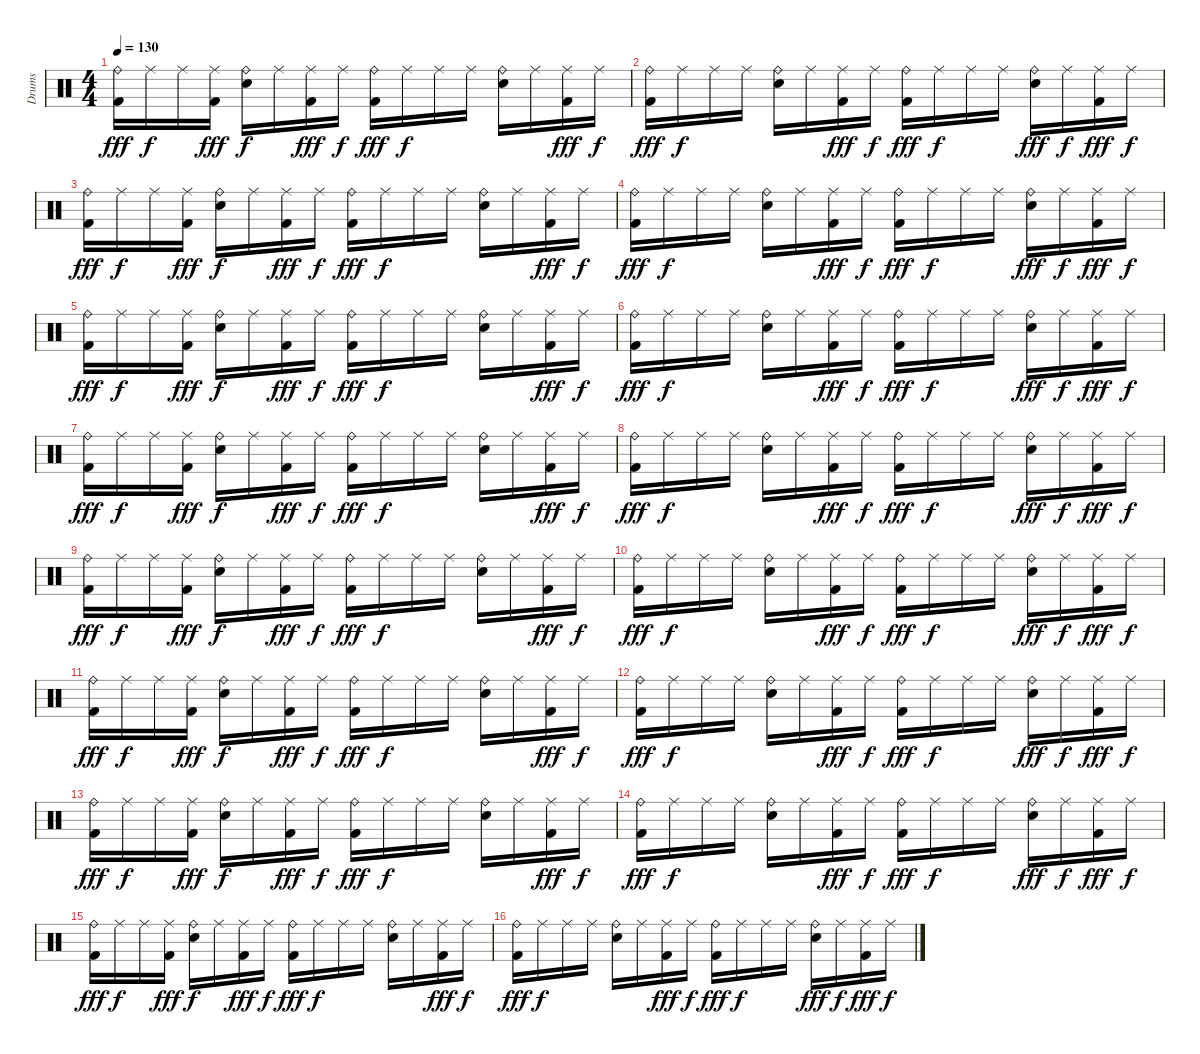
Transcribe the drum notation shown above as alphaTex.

\track ("Drums" "Drums") {instrument percussion}
\staff {score}
\articulation defaults
\ts (4 4)
\tempo 130
\clef neutral
\ks c
("Ride (bell)" "Kick (hit) 2").16{dy fff} "Ride (middle)".16{dy f} "Ride (middle)".16 ("Ride (middle)" "Kick (hit) 2").16{dy fff} ("Ride (bell)" "Electric Snare (hit)").16{dy f} "Ride (middle)".16 ("Ride (middle)" "Kick (hit) 2").16{dy fff} "Ride (middle)".16{dy f} ("Ride (bell)" "Kick (hit) 2").16{dy fff} "Ride (middle)".16{dy f} "Ride (middle)".16 "Ride (middle)".16 ("Ride (bell)" "Electric Snare (hit)").16 "Ride (middle)".16 ("Ride (middle)" "Kick (hit) 2").16{dy fff} "Ride (middle)".16{dy f} |
("Ride (bell)" "Kick (hit) 2").16{dy fff} "Ride (middle)".16{dy f} "Ride (middle)".16 "Ride (middle)".16 ("Ride (bell)" "Electric Snare (hit)").16 "Ride (middle)".16 ("Ride (middle)" "Kick (hit) 2").16{dy fff} "Ride (middle)".16{dy f} ("Ride (bell)" "Kick (hit) 2").16{dy fff} "Ride (middle)".16{dy f} "Ride (middle)".16 "Ride (middle)".16 ("Ride (bell)" "Hand Clap (hit)").16{dy fff} "Ride (middle)".16{dy f} ("Ride (middle)" "Kick (hit) 2").16{dy fff} "Ride (middle)".16{dy f} |
("Ride (bell)" "Kick (hit) 2").16{dy fff} "Ride (middle)".16{dy f} "Ride (middle)".16 ("Ride (middle)" "Kick (hit) 2").16{dy fff} ("Ride (bell)" "Electric Snare (hit)").16{dy f} "Ride (middle)".16 ("Ride (middle)" "Kick (hit) 2").16{dy fff} "Ride (middle)".16{dy f} ("Ride (bell)" "Kick (hit) 2").16{dy fff} "Ride (middle)".16{dy f} "Ride (middle)".16 "Ride (middle)".16 ("Ride (bell)" "Electric Snare (hit)").16 "Ride (middle)".16 ("Ride (middle)" "Kick (hit) 2").16{dy fff} "Ride (middle)".16{dy f} |
("Ride (bell)" "Kick (hit) 2").16{dy fff} "Ride (middle)".16{dy f} "Ride (middle)".16 "Ride (middle)".16 ("Ride (bell)" "Electric Snare (hit)").16 "Ride (middle)".16 ("Ride (middle)" "Kick (hit) 2").16{dy fff} "Ride (middle)".16{dy f} ("Ride (bell)" "Kick (hit) 2").16{dy fff} "Ride (middle)".16{dy f} "Ride (middle)".16 "Ride (middle)".16 ("Ride (bell)" "Hand Clap (hit)").16{dy fff} "Ride (middle)".16{dy f} ("Ride (middle)" "Kick (hit) 2").16{dy fff} "Ride (middle)".16{dy f} |
("Ride (bell)" "Kick (hit) 2").16{dy fff} "Ride (middle)".16{dy f} "Ride (middle)".16 ("Ride (middle)" "Kick (hit) 2").16{dy fff} ("Ride (bell)" "Electric Snare (hit)").16{dy f} "Ride (middle)".16 ("Ride (middle)" "Kick (hit) 2").16{dy fff} "Ride (middle)".16{dy f} ("Ride (bell)" "Kick (hit) 2").16{dy fff} "Ride (middle)".16{dy f} "Ride (middle)".16 "Ride (middle)".16 ("Ride (bell)" "Electric Snare (hit)").16 "Ride (middle)".16 ("Ride (middle)" "Kick (hit) 2").16{dy fff} "Ride (middle)".16{dy f} |
("Ride (bell)" "Kick (hit) 2").16{dy fff} "Ride (middle)".16{dy f} "Ride (middle)".16 "Ride (middle)".16 ("Ride (bell)" "Electric Snare (hit)").16 "Ride (middle)".16 ("Ride (middle)" "Kick (hit) 2").16{dy fff} "Ride (middle)".16{dy f} ("Ride (bell)" "Kick (hit) 2").16{dy fff} "Ride (middle)".16{dy f} "Ride (middle)".16 "Ride (middle)".16 ("Ride (bell)" "Hand Clap (hit)").16{dy fff} "Ride (middle)".16{dy f} ("Ride (middle)" "Kick (hit) 2").16{dy fff} "Ride (middle)".16{dy f} |
("Ride (bell)" "Kick (hit) 2").16{dy fff} "Ride (middle)".16{dy f} "Ride (middle)".16 ("Ride (middle)" "Kick (hit) 2").16{dy fff} ("Ride (bell)" "Electric Snare (hit)").16{dy f} "Ride (middle)".16 ("Ride (middle)" "Kick (hit) 2").16{dy fff} "Ride (middle)".16{dy f} ("Ride (bell)" "Kick (hit) 2").16{dy fff} "Ride (middle)".16{dy f} "Ride (middle)".16 "Ride (middle)".16 ("Ride (bell)" "Electric Snare (hit)").16 "Ride (middle)".16 ("Ride (middle)" "Kick (hit) 2").16{dy fff} "Ride (middle)".16{dy f} |
("Ride (bell)" "Kick (hit) 2").16{dy fff} "Ride (middle)".16{dy f} "Ride (middle)".16 "Ride (middle)".16 ("Ride (bell)" "Electric Snare (hit)").16 "Ride (middle)".16 ("Ride (middle)" "Kick (hit) 2").16{dy fff} "Ride (middle)".16{dy f} ("Ride (bell)" "Kick (hit) 2").16{dy fff} "Ride (middle)".16{dy f} "Ride (middle)".16 "Ride (middle)".16 ("Ride (bell)" "Hand Clap (hit)").16{dy fff} "Ride (middle)".16{dy f} ("Ride (middle)" "Kick (hit) 2").16{dy fff} "Ride (middle)".16{dy f} |
("Ride (bell)" "Kick (hit) 2").16{dy fff} "Ride (middle)".16{dy f} "Ride (middle)".16 ("Ride (middle)" "Kick (hit) 2").16{dy fff} ("Ride (bell)" "Electric Snare (hit)").16{dy f} "Ride (middle)".16 ("Ride (middle)" "Kick (hit) 2").16{dy fff} "Ride (middle)".16{dy f} ("Ride (bell)" "Kick (hit) 2").16{dy fff} "Ride (middle)".16{dy f} "Ride (middle)".16 "Ride (middle)".16 ("Ride (bell)" "Electric Snare (hit)").16 "Ride (middle)".16 ("Ride (middle)" "Kick (hit) 2").16{dy fff} "Ride (middle)".16{dy f} |
("Ride (bell)" "Kick (hit) 2").16{dy fff} "Ride (middle)".16{dy f} "Ride (middle)".16 "Ride (middle)".16 ("Ride (bell)" "Electric Snare (hit)").16 "Ride (middle)".16 ("Ride (middle)" "Kick (hit) 2").16{dy fff} "Ride (middle)".16{dy f} ("Ride (bell)" "Kick (hit) 2").16{dy fff} "Ride (middle)".16{dy f} "Ride (middle)".16 "Ride (middle)".16 ("Ride (bell)" "Hand Clap (hit)").16{dy fff} "Ride (middle)".16{dy f} ("Ride (middle)" "Kick (hit) 2").16{dy fff} "Ride (middle)".16{dy f} |
("Ride (bell)" "Kick (hit) 2").16{dy fff} "Ride (middle)".16{dy f} "Ride (middle)".16 ("Ride (middle)" "Kick (hit) 2").16{dy fff} ("Ride (bell)" "Electric Snare (hit)").16{dy f} "Ride (middle)".16 ("Ride (middle)" "Kick (hit) 2").16{dy fff} "Ride (middle)".16{dy f} ("Ride (bell)" "Kick (hit) 2").16{dy fff} "Ride (middle)".16{dy f} "Ride (middle)".16 "Ride (middle)".16 ("Ride (bell)" "Electric Snare (hit)").16 "Ride (middle)".16 ("Ride (middle)" "Kick (hit) 2").16{dy fff} "Ride (middle)".16{dy f} |
("Ride (bell)" "Kick (hit) 2").16{dy fff} "Ride (middle)".16{dy f} "Ride (middle)".16 "Ride (middle)".16 ("Ride (bell)" "Electric Snare (hit)").16 "Ride (middle)".16 ("Ride (middle)" "Kick (hit) 2").16{dy fff} "Ride (middle)".16{dy f} ("Ride (bell)" "Kick (hit) 2").16{dy fff} "Ride (middle)".16{dy f} "Ride (middle)".16 "Ride (middle)".16 ("Ride (bell)" "Hand Clap (hit)").16{dy fff} "Ride (middle)".16{dy f} ("Ride (middle)" "Kick (hit) 2").16{dy fff} "Ride (middle)".16{dy f} |
("Ride (bell)" "Kick (hit) 2").16{dy fff} "Ride (middle)".16{dy f} "Ride (middle)".16 ("Ride (middle)" "Kick (hit) 2").16{dy fff} ("Ride (bell)" "Electric Snare (hit)").16{dy f} "Ride (middle)".16 ("Ride (middle)" "Kick (hit) 2").16{dy fff} "Ride (middle)".16{dy f} ("Ride (bell)" "Kick (hit) 2").16{dy fff} "Ride (middle)".16{dy f} "Ride (middle)".16 "Ride (middle)".16 ("Ride (bell)" "Electric Snare (hit)").16 "Ride (middle)".16 ("Ride (middle)" "Kick (hit) 2").16{dy fff} "Ride (middle)".16{dy f} |
("Ride (bell)" "Kick (hit) 2").16{dy fff} "Ride (middle)".16{dy f} "Ride (middle)".16 "Ride (middle)".16 ("Ride (bell)" "Electric Snare (hit)").16 "Ride (middle)".16 ("Ride (middle)" "Kick (hit) 2").16{dy fff} "Ride (middle)".16{dy f} ("Ride (bell)" "Kick (hit) 2").16{dy fff} "Ride (middle)".16{dy f} "Ride (middle)".16 "Ride (middle)".16 ("Ride (bell)" "Hand Clap (hit)").16{dy fff} "Ride (middle)".16{dy f} ("Ride (middle)" "Kick (hit) 2").16{dy fff} "Ride (middle)".16{dy f} |
("Ride (bell)" "Kick (hit) 2").16{dy fff} "Ride (middle)".16{dy f} "Ride (middle)".16 ("Ride (middle)" "Kick (hit) 2").16{dy fff} ("Ride (bell)" "Electric Snare (hit)").16{dy f} "Ride (middle)".16 ("Ride (middle)" "Kick (hit) 2").16{dy fff} "Ride (middle)".16{dy f} ("Ride (bell)" "Kick (hit) 2").16{dy fff} "Ride (middle)".16{dy f} "Ride (middle)".16 "Ride (middle)".16 ("Ride (bell)" "Electric Snare (hit)").16 "Ride (middle)".16 ("Ride (middle)" "Kick (hit) 2").16{dy fff} "Ride (middle)".16{dy f} |
("Ride (bell)" "Kick (hit) 2").16{dy fff} "Ride (middle)".16{dy f} "Ride (middle)".16 "Ride (middle)".16 ("Ride (bell)" "Electric Snare (hit)").16 "Ride (middle)".16 ("Ride (middle)" "Kick (hit) 2").16{dy fff} "Ride (middle)".16{dy f} ("Ride (bell)" "Kick (hit) 2").16{dy fff} "Ride (middle)".16{dy f} "Ride (middle)".16 "Ride (middle)".16 ("Ride (bell)" "Hand Clap (hit)").16{dy fff} "Ride (middle)".16{dy f} ("Ride (middle)" "Kick (hit) 2").16{dy fff} "Ride (middle)".16{dy f}
